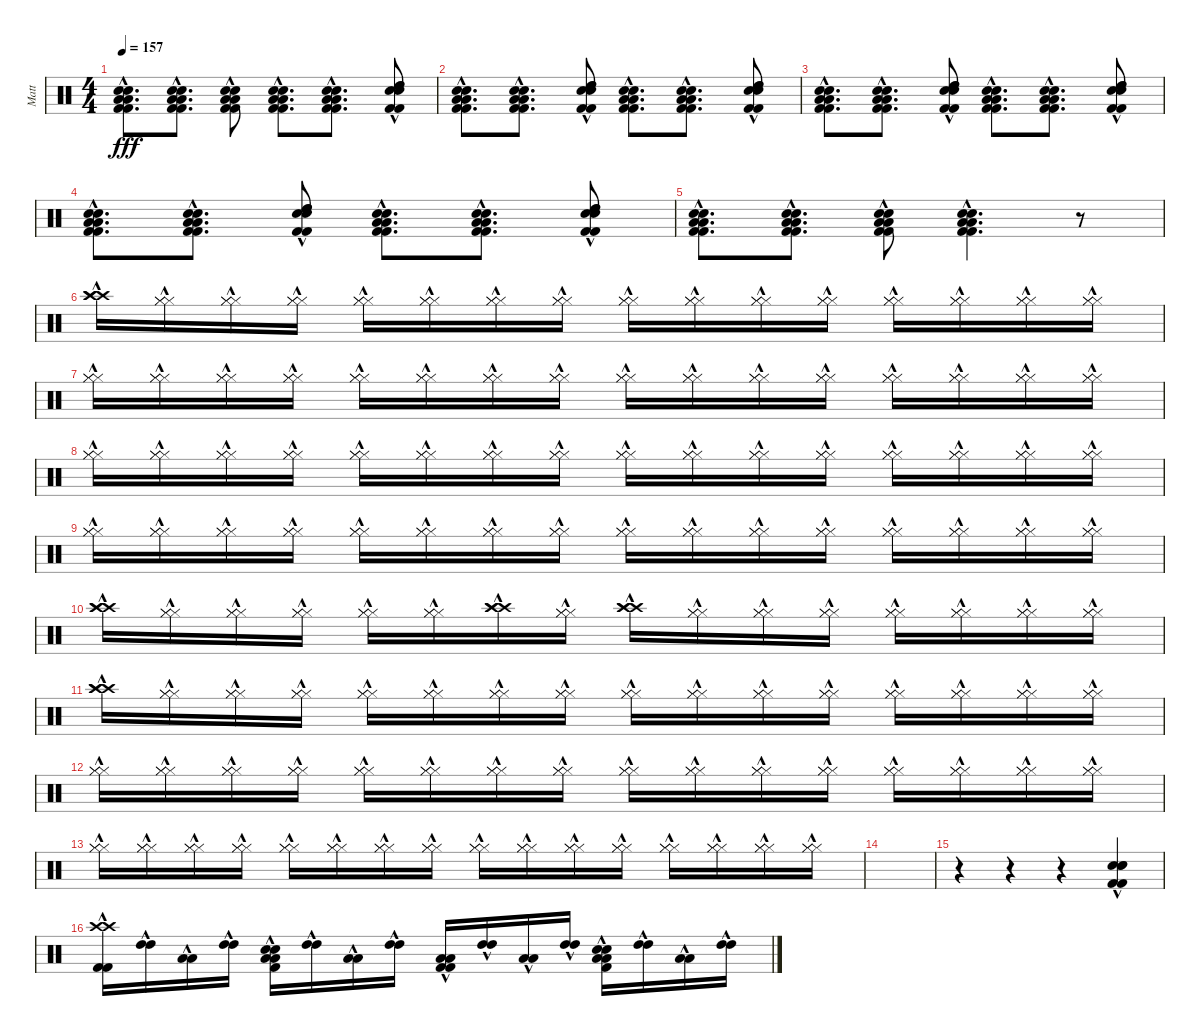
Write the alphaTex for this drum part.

\track ("Matt" "Matt") {instrument percussion}
\staff {score}
\articulation defaults
\ts (4 4)
\tempo 157
\clef neutral
\ks c
("Low Tom (hit)"{hac} "Low Tom (hit)"{hac} "Kick (hit) 2"{hac} "Kick (hit) 2"{hac} "Snare (hit) 2"{hac} "Snare (hit) 2"{hac}).8{d dy fff} ("Low Tom (hit)"{hac} "Low Tom (hit)"{hac} "Kick (hit) 2"{hac} "Kick (hit) 2"{hac} "Snare (hit) 2"{hac} "Snare (hit) 2"{hac}).8{d} ("Low Tom (hit)"{hac} "Low Tom (hit)"{hac} "Kick (hit) 2"{hac} "Kick (hit) 2"{hac} "Snare (hit) 2"{hac} "Snare (hit) 2"{hac}).8 ("Low Tom (hit)"{hac} "Low Tom (hit)"{hac} "Kick (hit) 2"{hac} "Kick (hit) 2"{hac} "Snare (hit) 2"{hac} "Snare (hit) 2"{hac}).8{d} ("Low Tom (hit)"{hac} "Low Tom (hit)"{hac} "Kick (hit) 2"{hac} "Kick (hit) 2"{hac} "Snare (hit) 2"{hac} "Snare (hit) 2"{hac}).8{d} ("High Tom (hit)"{hac} "High Tom (hit)"{hac} "Kick (hit) 2"{hac} "Kick (hit) 2"{hac} "Snare (hit) 2"{hac} "Snare (hit) 2"{hac}).8 |
("Low Tom (hit)"{hac} "Low Tom (hit)"{hac} "Kick (hit) 2"{hac} "Kick (hit) 2"{hac} "Snare (hit) 2"{hac} "Snare (hit) 2"{hac}).8{d} ("Low Tom (hit)"{hac} "Low Tom (hit)"{hac} "Kick (hit) 2"{hac} "Kick (hit) 2"{hac} "Snare (hit) 2"{hac} "Snare (hit) 2"{hac}).8{d} ("High Tom (hit)"{hac} "High Tom (hit)"{hac} "Kick (hit) 2"{hac} "Kick (hit) 2"{hac} "Snare (hit) 2"{hac} "Snare (hit) 2"{hac}).8 ("Low Tom (hit)"{hac} "Low Tom (hit)"{hac} "Kick (hit) 2"{hac} "Kick (hit) 2"{hac} "Snare (hit) 2"{hac} "Snare (hit) 2"{hac}).8{d} ("Low Tom (hit)"{hac} "Low Tom (hit)"{hac} "Kick (hit) 2"{hac} "Kick (hit) 2"{hac} "Snare (hit) 2"{hac} "Snare (hit) 2"{hac}).8{d} ("High Tom (hit)"{hac} "High Tom (hit)"{hac} "Kick (hit) 2"{hac} "Kick (hit) 2"{hac} "Snare (hit) 2"{hac} "Snare (hit) 2"{hac}).8 |
("Low Tom (hit)"{hac} "Low Tom (hit)"{hac} "Kick (hit) 2"{hac} "Kick (hit) 2"{hac} "Snare (hit) 2"{hac} "Snare (hit) 2"{hac}).8{d} ("Low Tom (hit)"{hac} "Low Tom (hit)"{hac} "Kick (hit) 2"{hac} "Kick (hit) 2"{hac} "Snare (hit) 2"{hac} "Snare (hit) 2"{hac}).8{d} ("High Tom (hit)"{hac} "High Tom (hit)"{hac} "Kick (hit) 2"{hac} "Kick (hit) 2"{hac} "Snare (hit) 2"{hac} "Snare (hit) 2"{hac}).8 ("Low Tom (hit)"{hac} "Low Tom (hit)"{hac} "Kick (hit) 2"{hac} "Kick (hit) 2"{hac} "Snare (hit) 2"{hac} "Snare (hit) 2"{hac}).8{d} ("Low Tom (hit)"{hac} "Low Tom (hit)"{hac} "Kick (hit) 2"{hac} "Kick (hit) 2"{hac} "Snare (hit) 2"{hac} "Snare (hit) 2"{hac}).8{d} ("High Tom (hit)"{hac} "High Tom (hit)"{hac} "Kick (hit) 2"{hac} "Kick (hit) 2"{hac} "Snare (hit) 2"{hac} "Snare (hit) 2"{hac}).8 |
("Low Tom (hit)"{hac} "Low Tom (hit)"{hac} "Kick (hit) 2"{hac} "Kick (hit) 2"{hac} "Snare (hit) 2"{hac} "Snare (hit) 2"{hac}).8{d} ("Low Tom (hit)"{hac} "Low Tom (hit)"{hac} "Kick (hit) 2"{hac} "Kick (hit) 2"{hac} "Snare (hit) 2"{hac} "Snare (hit) 2"{hac}).8{d} ("High Tom (hit)"{hac} "High Tom (hit)"{hac} "Kick (hit) 2"{hac} "Kick (hit) 2"{hac} "Snare (hit) 2"{hac} "Snare (hit) 2"{hac}).8 ("Low Tom (hit)"{hac} "Low Tom (hit)"{hac} "Kick (hit) 2"{hac} "Kick (hit) 2"{hac} "Snare (hit) 2"{hac} "Snare (hit) 2"{hac}).8{d} ("Low Tom (hit)"{hac} "Low Tom (hit)"{hac} "Kick (hit) 2"{hac} "Kick (hit) 2"{hac} "Snare (hit) 2"{hac} "Snare (hit) 2"{hac}).8{d} ("High Tom (hit)"{hac} "High Tom (hit)"{hac} "Kick (hit) 2"{hac} "Kick (hit) 2"{hac} "Snare (hit) 2"{hac} "Snare (hit) 2"{hac}).8 |
("Low Tom (hit)"{hac} "Low Tom (hit)"{hac} "Kick (hit) 2"{hac} "Kick (hit) 2"{hac} "Snare (hit) 2"{hac} "Snare (hit) 2"{hac}).8{d} ("Low Tom (hit)"{hac} "Low Tom (hit)"{hac} "Kick (hit) 2"{hac} "Kick (hit) 2"{hac} "Snare (hit) 2"{hac} "Snare (hit) 2"{hac}).8{d} ("Low Tom (hit)"{hac} "Low Tom (hit)"{hac} "Kick (hit) 2"{hac} "Kick (hit) 2"{hac} "Snare (hit) 2"{hac} "Snare (hit) 2"{hac}).8 ("Low Tom (hit)"{hac} "Low Tom (hit)"{hac} "Kick (hit) 2"{hac} "Kick (hit) 2"{hac} "Snare (hit) 2"{hac} "Snare (hit) 2"{hac}).4{d} r.8 |
("Crash high (hit)"{hac} "Crash high (hit)"{hac} "Crash high (hit)"{hac}).16 ("Hi-Hat (closed)"{hac} "Hi-Hat (closed)"{hac} "Hi-Hat (closed)"{hac}).16 ("Hi-Hat (closed)"{hac} "Hi-Hat (closed)"{hac} "Hi-Hat (closed)"{hac}).16 ("Hi-Hat (closed)"{hac} "Hi-Hat (closed)"{hac} "Hi-Hat (closed)"{hac}).16 ("Hi-Hat (closed)"{hac} "Hi-Hat (closed)"{hac} "Hi-Hat (closed)"{hac}).16 ("Hi-Hat (closed)"{hac} "Hi-Hat (closed)"{hac} "Hi-Hat (closed)"{hac}).16 ("Hi-Hat (closed)"{hac} "Hi-Hat (closed)"{hac} "Hi-Hat (closed)"{hac}).16 ("Hi-Hat (closed)"{hac} "Hi-Hat (closed)"{hac} "Hi-Hat (closed)"{hac}).16 ("Hi-Hat (closed)"{hac} "Hi-Hat (closed)"{hac} "Hi-Hat (closed)"{hac}).16 ("Hi-Hat (closed)"{hac} "Hi-Hat (closed)"{hac} "Hi-Hat (closed)"{hac}).16 ("Hi-Hat (closed)"{hac} "Hi-Hat (closed)"{hac} "Hi-Hat (closed)"{hac}).16 ("Hi-Hat (closed)"{hac} "Hi-Hat (closed)"{hac} "Hi-Hat (closed)"{hac}).16 ("Hi-Hat (closed)"{hac} "Hi-Hat (closed)"{hac} "Hi-Hat (closed)"{hac}).16 ("Hi-Hat (closed)"{hac} "Hi-Hat (closed)"{hac} "Hi-Hat (closed)"{hac}).16 ("Hi-Hat (closed)"{hac} "Hi-Hat (closed)"{hac} "Hi-Hat (closed)"{hac}).16 ("Hi-Hat (closed)"{hac} "Hi-Hat (closed)"{hac} "Hi-Hat (closed)"{hac}).16 |
("Hi-Hat (closed)"{hac} "Hi-Hat (closed)"{hac} "Hi-Hat (closed)"{hac}).16 ("Hi-Hat (closed)"{hac} "Hi-Hat (closed)"{hac} "Hi-Hat (closed)"{hac}).16 ("Hi-Hat (closed)"{hac} "Hi-Hat (closed)"{hac} "Hi-Hat (closed)"{hac}).16 ("Hi-Hat (closed)"{hac} "Hi-Hat (closed)"{hac} "Hi-Hat (closed)"{hac}).16 ("Hi-Hat (closed)"{hac} "Hi-Hat (closed)"{hac} "Hi-Hat (closed)"{hac}).16 ("Hi-Hat (closed)"{hac} "Hi-Hat (closed)"{hac} "Hi-Hat (closed)"{hac}).16 ("Hi-Hat (closed)"{hac} "Hi-Hat (closed)"{hac} "Hi-Hat (closed)"{hac}).16 ("Hi-Hat (closed)"{hac} "Hi-Hat (closed)"{hac} "Hi-Hat (closed)"{hac}).16 ("Hi-Hat (closed)"{hac} "Hi-Hat (closed)"{hac} "Hi-Hat (closed)"{hac}).16 ("Hi-Hat (closed)"{hac} "Hi-Hat (closed)"{hac} "Hi-Hat (closed)"{hac}).16 ("Hi-Hat (closed)"{hac} "Hi-Hat (closed)"{hac} "Hi-Hat (closed)"{hac}).16 ("Hi-Hat (closed)"{hac} "Hi-Hat (closed)"{hac} "Hi-Hat (closed)"{hac}).16 ("Hi-Hat (closed)"{hac} "Hi-Hat (closed)"{hac} "Hi-Hat (closed)"{hac}).16 ("Hi-Hat (closed)"{hac} "Hi-Hat (closed)"{hac} "Hi-Hat (closed)"{hac}).16 ("Hi-Hat (closed)"{hac} "Hi-Hat (closed)"{hac} "Hi-Hat (closed)"{hac}).16 ("Hi-Hat (closed)"{hac} "Hi-Hat (closed)"{hac} "Hi-Hat (closed)"{hac}).16 |
("Hi-Hat (closed)"{hac} "Hi-Hat (closed)"{hac} "Hi-Hat (closed)"{hac}).16 ("Hi-Hat (closed)"{hac} "Hi-Hat (closed)"{hac} "Hi-Hat (closed)"{hac}).16 ("Hi-Hat (closed)"{hac} "Hi-Hat (closed)"{hac} "Hi-Hat (closed)"{hac}).16 ("Hi-Hat (closed)"{hac} "Hi-Hat (closed)"{hac} "Hi-Hat (closed)"{hac}).16 ("Hi-Hat (closed)"{hac} "Hi-Hat (closed)"{hac} "Hi-Hat (closed)"{hac}).16 ("Hi-Hat (closed)"{hac} "Hi-Hat (closed)"{hac} "Hi-Hat (closed)"{hac}).16 ("Hi-Hat (closed)"{hac} "Hi-Hat (closed)"{hac} "Hi-Hat (closed)"{hac}).16 ("Hi-Hat (closed)"{hac} "Hi-Hat (closed)"{hac} "Hi-Hat (closed)"{hac}).16 ("Hi-Hat (closed)"{hac} "Hi-Hat (closed)"{hac} "Hi-Hat (closed)"{hac}).16 ("Hi-Hat (closed)"{hac} "Hi-Hat (closed)"{hac} "Hi-Hat (closed)"{hac}).16 ("Hi-Hat (closed)"{hac} "Hi-Hat (closed)"{hac} "Hi-Hat (closed)"{hac}).16 ("Hi-Hat (closed)"{hac} "Hi-Hat (closed)"{hac} "Hi-Hat (closed)"{hac}).16 ("Hi-Hat (closed)"{hac} "Hi-Hat (closed)"{hac} "Hi-Hat (closed)"{hac}).16 ("Hi-Hat (closed)"{hac} "Hi-Hat (closed)"{hac} "Hi-Hat (closed)"{hac}).16 ("Hi-Hat (closed)"{hac} "Hi-Hat (closed)"{hac} "Hi-Hat (closed)"{hac}).16 ("Hi-Hat (closed)"{hac} "Hi-Hat (closed)"{hac} "Hi-Hat (closed)"{hac}).16 |
("Hi-Hat (closed)"{hac} "Hi-Hat (closed)"{hac} "Hi-Hat (closed)"{hac}).16 ("Hi-Hat (closed)"{hac} "Hi-Hat (closed)"{hac} "Hi-Hat (closed)"{hac}).16 ("Hi-Hat (closed)"{hac} "Hi-Hat (closed)"{hac} "Hi-Hat (closed)"{hac}).16 ("Hi-Hat (closed)"{hac} "Hi-Hat (closed)"{hac} "Hi-Hat (closed)"{hac}).16 ("Hi-Hat (closed)"{hac} "Hi-Hat (closed)"{hac} "Hi-Hat (closed)"{hac}).16 ("Hi-Hat (closed)"{hac} "Hi-Hat (closed)"{hac} "Hi-Hat (closed)"{hac}).16 ("Hi-Hat (closed)"{hac} "Hi-Hat (closed)"{hac} "Hi-Hat (closed)"{hac}).16 ("Hi-Hat (closed)"{hac} "Hi-Hat (closed)"{hac} "Hi-Hat (closed)"{hac}).16 ("Hi-Hat (closed)"{hac} "Hi-Hat (closed)"{hac} "Hi-Hat (closed)"{hac}).16 ("Hi-Hat (closed)"{hac} "Hi-Hat (closed)"{hac} "Hi-Hat (closed)"{hac}).16 ("Hi-Hat (closed)"{hac} "Hi-Hat (closed)"{hac} "Hi-Hat (closed)"{hac}).16 ("Hi-Hat (closed)"{hac} "Hi-Hat (closed)"{hac} "Hi-Hat (closed)"{hac}).16 ("Hi-Hat (closed)"{hac} "Hi-Hat (closed)"{hac} "Hi-Hat (closed)"{hac}).16 ("Hi-Hat (closed)"{hac} "Hi-Hat (closed)"{hac} "Hi-Hat (closed)"{hac}).16 ("Hi-Hat (closed)"{hac} "Hi-Hat (closed)"{hac} "Hi-Hat (closed)"{hac}).16 ("Hi-Hat (closed)"{hac} "Hi-Hat (closed)"{hac} "Hi-Hat (closed)"{hac}).16 |
("Crash high (hit)"{hac} "Crash high (hit)"{hac} "Crash high (hit)"{hac}).16 ("Hi-Hat (closed)"{hac} "Hi-Hat (closed)"{hac} "Hi-Hat (closed)"{hac}).16 ("Hi-Hat (closed)"{hac} "Hi-Hat (closed)"{hac} "Hi-Hat (closed)"{hac}).16 ("Hi-Hat (closed)"{hac} "Hi-Hat (closed)"{hac} "Hi-Hat (closed)"{hac}).16 ("Hi-Hat (closed)"{hac} "Hi-Hat (closed)"{hac} "Hi-Hat (closed)"{hac}).16 ("Hi-Hat (closed)"{hac} "Hi-Hat (closed)"{hac} "Hi-Hat (closed)"{hac}).16 ("Crash high (hit)"{hac} "Crash high (hit)"{hac} "Crash high (hit)"{hac}).16 ("Hi-Hat (closed)"{hac} "Hi-Hat (closed)"{hac} "Hi-Hat (closed)"{hac}).16 ("Crash high (hit)"{hac} "Crash high (hit)"{hac} "Crash high (hit)"{hac}).16 ("Hi-Hat (closed)"{hac} "Hi-Hat (closed)"{hac} "Hi-Hat (closed)"{hac}).16 ("Hi-Hat (closed)"{hac} "Hi-Hat (closed)"{hac} "Hi-Hat (closed)"{hac}).16 ("Hi-Hat (closed)"{hac} "Hi-Hat (closed)"{hac} "Hi-Hat (closed)"{hac}).16 ("Hi-Hat (closed)"{hac} "Hi-Hat (closed)"{hac} "Hi-Hat (closed)"{hac}).16 ("Hi-Hat (closed)"{hac} "Hi-Hat (closed)"{hac} "Hi-Hat (closed)"{hac}).16 ("Hi-Hat (closed)"{hac} "Hi-Hat (closed)"{hac} "Hi-Hat (closed)"{hac}).16 ("Hi-Hat (closed)"{hac} "Hi-Hat (closed)"{hac} "Hi-Hat (closed)"{hac}).16 |
("Crash high (hit)"{hac} "Crash high (hit)"{hac} "Crash high (hit)"{hac}).16 ("Hi-Hat (closed)"{hac} "Hi-Hat (closed)"{hac} "Hi-Hat (closed)"{hac}).16 ("Hi-Hat (closed)"{hac} "Hi-Hat (closed)"{hac} "Hi-Hat (closed)"{hac}).16 ("Hi-Hat (closed)"{hac} "Hi-Hat (closed)"{hac} "Hi-Hat (closed)"{hac}).16 ("Hi-Hat (closed)"{hac} "Hi-Hat (closed)"{hac} "Hi-Hat (closed)"{hac}).16 ("Hi-Hat (closed)"{hac} "Hi-Hat (closed)"{hac} "Hi-Hat (closed)"{hac}).16 ("Hi-Hat (closed)"{hac} "Hi-Hat (closed)"{hac} "Hi-Hat (closed)"{hac}).16 ("Hi-Hat (closed)"{hac} "Hi-Hat (closed)"{hac} "Hi-Hat (closed)"{hac}).16 ("Hi-Hat (closed)"{hac} "Hi-Hat (closed)"{hac} "Hi-Hat (closed)"{hac}).16 ("Hi-Hat (closed)"{hac} "Hi-Hat (closed)"{hac} "Hi-Hat (closed)"{hac}).16 ("Hi-Hat (closed)"{hac} "Hi-Hat (closed)"{hac} "Hi-Hat (closed)"{hac}).16 ("Hi-Hat (closed)"{hac} "Hi-Hat (closed)"{hac} "Hi-Hat (closed)"{hac}).16 ("Hi-Hat (closed)"{hac} "Hi-Hat (closed)"{hac} "Hi-Hat (closed)"{hac}).16 ("Hi-Hat (closed)"{hac} "Hi-Hat (closed)"{hac} "Hi-Hat (closed)"{hac}).16 ("Hi-Hat (closed)"{hac} "Hi-Hat (closed)"{hac} "Hi-Hat (closed)"{hac}).16 ("Hi-Hat (closed)"{hac} "Hi-Hat (closed)"{hac} "Hi-Hat (closed)"{hac}).16 |
("Hi-Hat (closed)"{hac} "Hi-Hat (closed)"{hac} "Hi-Hat (closed)"{hac}).16 ("Hi-Hat (closed)"{hac} "Hi-Hat (closed)"{hac} "Hi-Hat (closed)"{hac}).16 ("Hi-Hat (closed)"{hac} "Hi-Hat (closed)"{hac} "Hi-Hat (closed)"{hac}).16 ("Hi-Hat (closed)"{hac} "Hi-Hat (closed)"{hac} "Hi-Hat (closed)"{hac}).16 ("Hi-Hat (closed)"{hac} "Hi-Hat (closed)"{hac} "Hi-Hat (closed)"{hac}).16 ("Hi-Hat (closed)"{hac} "Hi-Hat (closed)"{hac} "Hi-Hat (closed)"{hac}).16 ("Hi-Hat (closed)"{hac} "Hi-Hat (closed)"{hac} "Hi-Hat (closed)"{hac}).16 ("Hi-Hat (closed)"{hac} "Hi-Hat (closed)"{hac} "Hi-Hat (closed)"{hac}).16 ("Hi-Hat (closed)"{hac} "Hi-Hat (closed)"{hac} "Hi-Hat (closed)"{hac}).16 ("Hi-Hat (closed)"{hac} "Hi-Hat (closed)"{hac} "Hi-Hat (closed)"{hac}).16 ("Hi-Hat (closed)"{hac} "Hi-Hat (closed)"{hac} "Hi-Hat (closed)"{hac}).16 ("Hi-Hat (closed)"{hac} "Hi-Hat (closed)"{hac} "Hi-Hat (closed)"{hac}).16 ("Hi-Hat (closed)"{hac} "Hi-Hat (closed)"{hac} "Hi-Hat (closed)"{hac}).16 ("Hi-Hat (closed)"{hac} "Hi-Hat (closed)"{hac} "Hi-Hat (closed)"{hac}).16 ("Hi-Hat (closed)"{hac} "Hi-Hat (closed)"{hac} "Hi-Hat (closed)"{hac}).16 ("Hi-Hat (closed)"{hac} "Hi-Hat (closed)"{hac} "Hi-Hat (closed)"{hac}).16 |
("Hi-Hat (closed)"{hac} "Hi-Hat (closed)"{hac} "Hi-Hat (closed)"{hac}).16 ("Hi-Hat (closed)"{hac} "Hi-Hat (closed)"{hac} "Hi-Hat (closed)"{hac}).16 ("Hi-Hat (closed)"{hac} "Hi-Hat (closed)"{hac} "Hi-Hat (closed)"{hac}).16 ("Hi-Hat (closed)"{hac} "Hi-Hat (closed)"{hac} "Hi-Hat (closed)"{hac}).16 ("Hi-Hat (closed)"{hac} "Hi-Hat (closed)"{hac} "Hi-Hat (closed)"{hac}).16 ("Hi-Hat (closed)"{hac} "Hi-Hat (closed)"{hac} "Hi-Hat (closed)"{hac}).16 ("Hi-Hat (closed)"{hac} "Hi-Hat (closed)"{hac} "Hi-Hat (closed)"{hac}).16 ("Hi-Hat (closed)"{hac} "Hi-Hat (closed)"{hac} "Hi-Hat (closed)"{hac}).16 ("Hi-Hat (closed)"{hac} "Hi-Hat (closed)"{hac} "Hi-Hat (closed)"{hac}).16 ("Hi-Hat (closed)"{hac} "Hi-Hat (closed)"{hac} "Hi-Hat (closed)"{hac}).16 ("Hi-Hat (closed)"{hac} "Hi-Hat (closed)"{hac} "Hi-Hat (closed)"{hac}).16 ("Hi-Hat (closed)"{hac} "Hi-Hat (closed)"{hac} "Hi-Hat (closed)"{hac}).16 ("Hi-Hat (closed)"{hac} "Hi-Hat (closed)"{hac} "Hi-Hat (closed)"{hac}).16 ("Hi-Hat (closed)"{hac} "Hi-Hat (closed)"{hac} "Hi-Hat (closed)"{hac}).16 ("Hi-Hat (closed)"{hac} "Hi-Hat (closed)"{hac} "Hi-Hat (closed)"{hac}).16 ("Hi-Hat (closed)"{hac} "Hi-Hat (closed)"{hac} "Hi-Hat (closed)"{hac}).16 |
|
r.4 r.4 r.4 ("Kick (hit) 2"{hac} "Kick (hit) 2"{hac} "Snare (hit) 2"{hac} "Snare (hit) 2"{hac} "Snare (hit) 2"{hac}).4 |
("Crash high (hit)"{hac} "Crash high (hit)"{hac} "Kick (hit) 2"{hac} "Kick (hit) 2"{hac}).16 ("High Tom (hit)"{hac} "High Tom (hit)"{hac}).16 ("Low Tom (hit)"{hac} "Low Tom (hit)"{hac}).16 ("High Tom (hit)"{hac} "High Tom (hit)"{hac}).16 ("Low Tom (hit)"{hac} "Low Tom (hit)"{hac} "Snare (hit) 2"{hac} "Kick (hit) 2"{hac} "Snare (hit) 2"{hac}).16 ("High Tom (hit)"{hac} "High Tom (hit)"{hac}).16 ("Low Tom (hit)"{hac} "Low Tom (hit)"{hac}).16 ("High Tom (hit)"{hac} "High Tom (hit)"{hac}).16 ("Low Tom (hit)"{hac} "Low Tom (hit)"{hac} "Kick (hit) 2"{hac} "Kick (hit) 2"{hac}).16 ("High Tom (hit)"{hac} "High Tom (hit)"{hac}).16 ("Low Tom (hit)"{hac} "Low Tom (hit)"{hac}).16 ("High Tom (hit)"{hac} "High Tom (hit)"{hac}).16 ("Low Tom (hit)"{hac} "Low Tom (hit)"{hac} "Snare (hit) 2"{hac} "Kick (hit) 2"{hac} "Snare (hit) 2"{hac}).16 ("High Tom (hit)"{hac} "High Tom (hit)"{hac}).16 ("Low Tom (hit)"{hac} "Low Tom (hit)"{hac}).16 ("High Tom (hit)"{hac} "High Tom (hit)"{hac}).16
